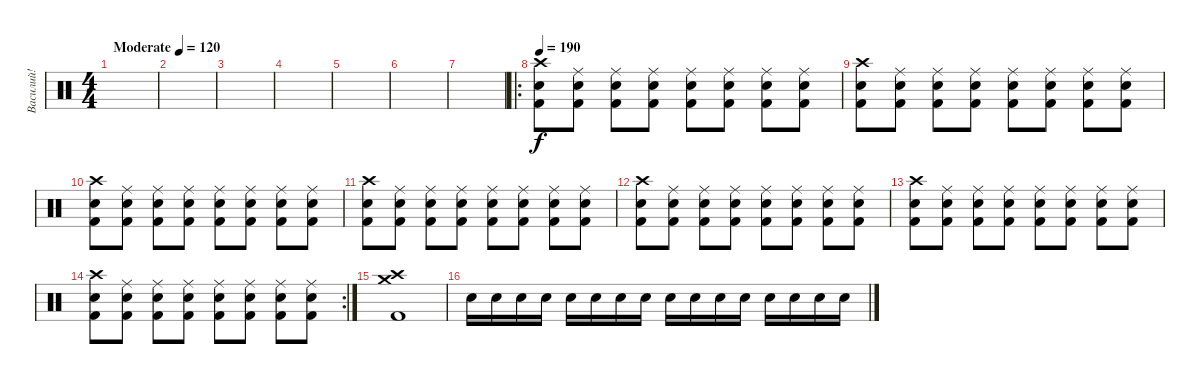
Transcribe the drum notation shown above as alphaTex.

\track ("Василий!" "Василий!") {instrument percussion}
\staff {score}
\articulation defaults
\ts (4 4)
\tempo (120 "Moderate")
\clef neutral
\ks c
|
|
|
|
|
|
|
\ro
\tempo 190
("Kick (hit) 2" "Electric Snare (hit)" "Crash high (hit)").8 ("Kick (hit) 2" "Electric Snare (hit)" "Ride (middle)").8 ("Kick (hit) 2" "Electric Snare (hit)" "Ride (middle)").8 ("Kick (hit) 2" "Electric Snare (hit)" "Ride (middle)").8 ("Kick (hit) 2" "Electric Snare (hit)" "Ride (middle)").8 ("Kick (hit) 2" "Electric Snare (hit)" "Ride (middle)").8 ("Kick (hit) 2" "Electric Snare (hit)" "Ride (middle)").8 ("Kick (hit) 2" "Electric Snare (hit)" "Ride (middle)").8 |
("Kick (hit) 2" "Electric Snare (hit)" "Crash high (hit)").8 ("Kick (hit) 2" "Electric Snare (hit)" "Ride (middle)").8 ("Kick (hit) 2" "Electric Snare (hit)" "Ride (middle)").8 ("Kick (hit) 2" "Electric Snare (hit)" "Ride (middle)").8 ("Kick (hit) 2" "Electric Snare (hit)" "Ride (middle)").8 ("Kick (hit) 2" "Electric Snare (hit)" "Ride (middle)").8 ("Kick (hit) 2" "Electric Snare (hit)" "Ride (middle)").8 ("Kick (hit) 2" "Electric Snare (hit)" "Ride (middle)").8 |
("Kick (hit) 2" "Electric Snare (hit)" "Crash high (hit)").8 ("Kick (hit) 2" "Electric Snare (hit)" "Ride (middle)").8 ("Kick (hit) 2" "Electric Snare (hit)" "Ride (middle)").8 ("Kick (hit) 2" "Electric Snare (hit)" "Ride (middle)").8 ("Kick (hit) 2" "Electric Snare (hit)" "Ride (middle)").8 ("Kick (hit) 2" "Electric Snare (hit)" "Ride (middle)").8 ("Kick (hit) 2" "Electric Snare (hit)" "Ride (middle)").8 ("Kick (hit) 2" "Electric Snare (hit)" "Ride (middle)").8 |
("Kick (hit) 2" "Electric Snare (hit)" "Crash high (hit)").8 ("Kick (hit) 2" "Electric Snare (hit)" "Ride (middle)").8 ("Kick (hit) 2" "Electric Snare (hit)" "Ride (middle)").8 ("Kick (hit) 2" "Electric Snare (hit)" "Ride (middle)").8 ("Kick (hit) 2" "Electric Snare (hit)" "Ride (middle)").8 ("Kick (hit) 2" "Electric Snare (hit)" "Ride (middle)").8 ("Kick (hit) 2" "Electric Snare (hit)" "Ride (middle)").8 ("Kick (hit) 2" "Electric Snare (hit)" "Ride (middle)").8 |
("Kick (hit) 2" "Electric Snare (hit)" "Crash high (hit)").8 ("Kick (hit) 2" "Electric Snare (hit)" "Ride (middle)").8 ("Kick (hit) 2" "Electric Snare (hit)" "Ride (middle)").8 ("Kick (hit) 2" "Electric Snare (hit)" "Ride (middle)").8 ("Kick (hit) 2" "Electric Snare (hit)" "Ride (middle)").8 ("Kick (hit) 2" "Electric Snare (hit)" "Ride (middle)").8 ("Kick (hit) 2" "Electric Snare (hit)" "Ride (middle)").8 ("Kick (hit) 2" "Electric Snare (hit)" "Ride (middle)").8 |
("Kick (hit) 2" "Electric Snare (hit)" "Crash high (hit)").8 ("Kick (hit) 2" "Electric Snare (hit)" "Ride (middle)").8 ("Kick (hit) 2" "Electric Snare (hit)" "Ride (middle)").8 ("Kick (hit) 2" "Electric Snare (hit)" "Ride (middle)").8 ("Kick (hit) 2" "Electric Snare (hit)" "Ride (middle)").8 ("Kick (hit) 2" "Electric Snare (hit)" "Ride (middle)").8 ("Kick (hit) 2" "Electric Snare (hit)" "Ride (middle)").8 ("Kick (hit) 2" "Electric Snare (hit)" "Ride (middle)").8 |
\rc 2
("Kick (hit) 2" "Electric Snare (hit)" "Crash high (hit)").8 ("Kick (hit) 2" "Electric Snare (hit)" "Ride (middle)").8 ("Kick (hit) 2" "Electric Snare (hit)" "Ride (middle)").8 ("Kick (hit) 2" "Electric Snare (hit)" "Ride (middle)").8 ("Kick (hit) 2" "Electric Snare (hit)" "Ride (middle)").8 ("Kick (hit) 2" "Electric Snare (hit)" "Ride (middle)").8 ("Kick (hit) 2" "Electric Snare (hit)" "Ride (middle)").8 ("Kick (hit) 2" "Electric Snare (hit)" "Ride (middle)").8 |
("Kick (hit) 2" "Crash high (hit)" "Crash medium (hit)").1 |
"Electric Snare (hit)".16 "Electric Snare (hit)".16 "Electric Snare (hit)".16 "Electric Snare (hit)".16 "Electric Snare (hit)".16 "Electric Snare (hit)".16 "Electric Snare (hit)".16 "Electric Snare (hit)".16 "Electric Snare (hit)".16 "Electric Snare (hit)".16 "Electric Snare (hit)".16 "Electric Snare (hit)".16 "Electric Snare (hit)".16 "Electric Snare (hit)".16 "Electric Snare (hit)".16 "Electric Snare (hit)".16
